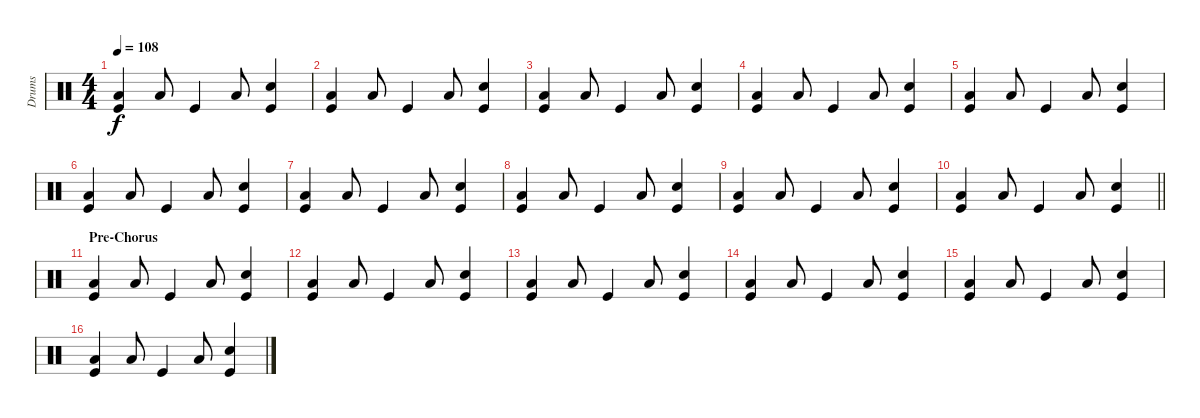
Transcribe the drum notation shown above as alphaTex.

\track ("Drums" "Drums") {instrument percussion}
\staff {score}
\articulation defaults
\ts (4 4)
\tempo 108
\clef neutral
\ks c
("Low Floor Tom (hit)" "Kick (hit)").4{dy f} "Low Floor Tom (hit)".8 "Kick (hit)".4 "Low Floor Tom (hit)".8 ("Snare (hit) 2" "Kick (hit)").4 |
("Low Floor Tom (hit)" "Kick (hit)").4 "Low Floor Tom (hit)".8 "Kick (hit)".4 "Low Floor Tom (hit)".8 ("Snare (hit) 2" "Kick (hit)").4 |
("Low Floor Tom (hit)" "Kick (hit)").4 "Low Floor Tom (hit)".8 "Kick (hit)".4 "Low Floor Tom (hit)".8 ("Snare (hit) 2" "Kick (hit)").4 |
("Low Floor Tom (hit)" "Kick (hit)").4 "Low Floor Tom (hit)".8 "Kick (hit)".4 "Low Floor Tom (hit)".8 ("Snare (hit) 2" "Kick (hit)").4 |
("Low Floor Tom (hit)" "Kick (hit)").4 "Low Floor Tom (hit)".8 "Kick (hit)".4 "Low Floor Tom (hit)".8 ("Snare (hit) 2" "Kick (hit)").4 |
("Low Floor Tom (hit)" "Kick (hit)").4 "Low Floor Tom (hit)".8 "Kick (hit)".4 "Low Floor Tom (hit)".8 ("Snare (hit) 2" "Kick (hit)").4 |
("Low Floor Tom (hit)" "Kick (hit)").4 "Low Floor Tom (hit)".8 "Kick (hit)".4 "Low Floor Tom (hit)".8 ("Snare (hit) 2" "Kick (hit)").4 |
("Low Floor Tom (hit)" "Kick (hit)").4 "Low Floor Tom (hit)".8 "Kick (hit)".4 "Low Floor Tom (hit)".8 ("Snare (hit) 2" "Kick (hit)").4 |
("Low Floor Tom (hit)" "Kick (hit)").4 "Low Floor Tom (hit)".8 "Kick (hit)".4 "Low Floor Tom (hit)".8 ("Snare (hit) 2" "Kick (hit)").4 |
\barLineRight lightlight
("Low Floor Tom (hit)" "Kick (hit)").4 "Low Floor Tom (hit)".8 "Kick (hit)".4 "Low Floor Tom (hit)".8 ("Snare (hit) 2" "Kick (hit)").4 |
\section ("" "Pre-Chorus")
("Low Floor Tom (hit)" "Kick (hit)").4 "Low Floor Tom (hit)".8 "Kick (hit)".4 "Low Floor Tom (hit)".8 ("Snare (hit) 2" "Kick (hit)").4 |
("Low Floor Tom (hit)" "Kick (hit)").4 "Low Floor Tom (hit)".8 "Kick (hit)".4 "Low Floor Tom (hit)".8 ("Snare (hit) 2" "Kick (hit)").4 |
("Low Floor Tom (hit)" "Kick (hit)").4 "Low Floor Tom (hit)".8 "Kick (hit)".4 "Low Floor Tom (hit)".8 ("Snare (hit) 2" "Kick (hit)").4 |
("Low Floor Tom (hit)" "Kick (hit)").4 "Low Floor Tom (hit)".8 "Kick (hit)".4 "Low Floor Tom (hit)".8 ("Snare (hit) 2" "Kick (hit)").4 |
("Low Floor Tom (hit)" "Kick (hit)").4 "Low Floor Tom (hit)".8 "Kick (hit)".4 "Low Floor Tom (hit)".8 ("Snare (hit) 2" "Kick (hit)").4 |
("Low Floor Tom (hit)" "Kick (hit)").4 "Low Floor Tom (hit)".8 "Kick (hit)".4 "Low Floor Tom (hit)".8 ("Snare (hit) 2" "Kick (hit)").4
